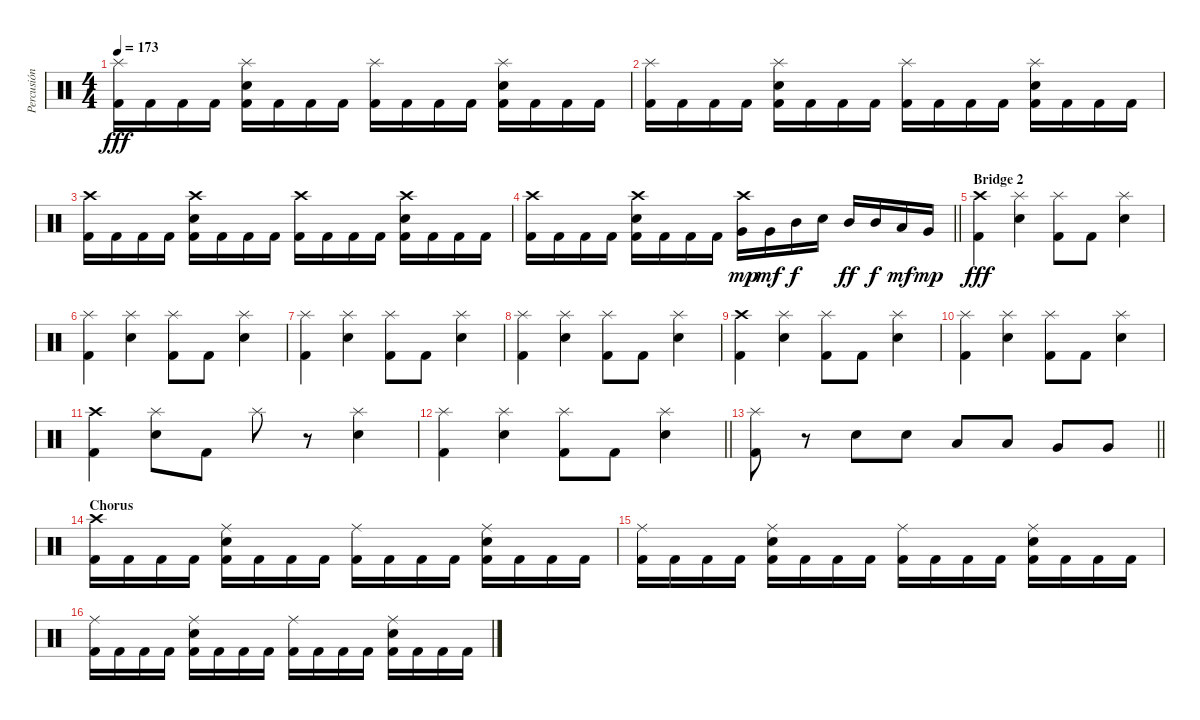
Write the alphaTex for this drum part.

\track ("Percusión" "Percusión") {instrument percussion}
\staff {score}
\articulation defaults
\ts (4 4)
\tempo 173
\clef neutral
\ks c
("Splash (hit)" "Kick (hit) 2").16{dy fff} "Kick (hit) 2".16 "Kick (hit) 2".16 "Kick (hit) 2".16 ("Splash (hit)" "Electric Snare (hit)" "Kick (hit) 2").16 "Kick (hit) 2".16 "Kick (hit) 2".16 "Kick (hit) 2".16 ("Splash (hit)" "Kick (hit) 2").16 "Kick (hit) 2".16 "Kick (hit) 2".16 "Kick (hit) 2".16 ("Splash (hit)" "Electric Snare (hit)" "Kick (hit) 2").16 "Kick (hit) 2".16 "Kick (hit) 2".16 "Kick (hit) 2".16 |
("Splash (hit)" "Kick (hit) 2").16 "Kick (hit) 2".16 "Kick (hit) 2".16 "Kick (hit) 2".16 ("Splash (hit)" "Electric Snare (hit)" "Kick (hit) 2").16 "Kick (hit) 2".16 "Kick (hit) 2".16 "Kick (hit) 2".16 ("Splash (hit)" "Kick (hit) 2").16 "Kick (hit) 2".16 "Kick (hit) 2".16 "Kick (hit) 2".16 ("Splash (hit)" "Electric Snare (hit)" "Kick (hit) 2").16 "Kick (hit) 2".16 "Kick (hit) 2".16 "Kick (hit) 2".16 |
("Crash high (hit)" "Kick (hit) 2").16 "Kick (hit) 2".16 "Kick (hit) 2".16 "Kick (hit) 2".16 ("Crash high (hit)" "Electric Snare (hit)" "Kick (hit) 2").16 "Kick (hit) 2".16 "Kick (hit) 2".16 "Kick (hit) 2".16 ("Crash high (hit)" "Kick (hit) 2").16 "Kick (hit) 2".16 "Kick (hit) 2".16 "Kick (hit) 2".16 ("Crash high (hit)" "Electric Snare (hit)" "Kick (hit) 2").16 "Kick (hit) 2".16 "Kick (hit) 2".16 "Kick (hit) 2".16 |
\barLineRight lightlight
("Crash high (hit)" "Kick (hit) 2").16 "Kick (hit) 2".16 "Kick (hit) 2".16 "Kick (hit) 2".16 ("Crash high (hit)" "Electric Snare (hit)" "Kick (hit) 2").16 "Kick (hit) 2".16 "Kick (hit) 2".16 "Kick (hit) 2".16 ("Crash high (hit)" "Very Low Tom (hit)").16{dy mp} "Very Low Tom (hit)".16{dy mf} "Mid Tom (hit)".16{dy f} "Electric Snare (hit)".16 "Mid Tom (hit)".16{dy ff} "Mid Tom (hit)".16{dy f} "Low Tom (hit)".16{dy mf} "Very Low Tom (hit)".16{dy mp} |
\section ("" "Bridge 2")
("Crash high (hit)" "Kick (hit) 2").4{dy fff} ("Splash (hit)" "Electric Snare (hit)").4 ("Splash (hit)" "Kick (hit) 2").8 "Kick (hit) 2".8 ("Splash (hit)" "Electric Snare (hit)").4 |
("Splash (hit)" "Kick (hit) 2").4 ("Splash (hit)" "Electric Snare (hit)").4 ("Splash (hit)" "Kick (hit) 2").8 "Kick (hit) 2".8 ("Splash (hit)" "Electric Snare (hit)").4 |
("Splash (hit)" "Kick (hit) 2").4 ("Splash (hit)" "Electric Snare (hit)").4 ("Splash (hit)" "Kick (hit) 2").8 "Kick (hit) 2".8 ("Splash (hit)" "Electric Snare (hit)").4 |
("Splash (hit)" "Kick (hit) 2").4 ("Splash (hit)" "Electric Snare (hit)").4 ("Splash (hit)" "Kick (hit) 2").8 "Kick (hit) 2".8 ("Splash (hit)" "Electric Snare (hit)").4 |
("Crash high (hit)" "Kick (hit) 2").4 ("Splash (hit)" "Electric Snare (hit)").4 ("Splash (hit)" "Kick (hit) 2").8 "Kick (hit) 2".8 ("Splash (hit)" "Electric Snare (hit)").4 |
("Splash (hit)" "Kick (hit) 2").4 ("Splash (hit)" "Electric Snare (hit)").4 ("Splash (hit)" "Kick (hit) 2").8 "Kick (hit) 2".8 ("Splash (hit)" "Electric Snare (hit)").4 |
("Crash high (hit)" "Kick (hit) 2").4 ("Splash (hit)" "Electric Snare (hit)").8 "Kick (hit) 2".8 "Splash (hit)".8 r.8 ("Splash (hit)" "Electric Snare (hit)").4 |
\barLineRight lightlight
("Splash (hit)" "Kick (hit) 2").4 ("Splash (hit)" "Electric Snare (hit)").4 ("Splash (hit)" "Kick (hit) 2").8 "Kick (hit) 2".8 ("Splash (hit)" "Electric Snare (hit)").4 |
\section ("" "")
\barLineRight lightlight
("Splash (hit)" "Kick (hit) 2").8 r.8 "Electric Snare (hit)".8 "Electric Snare (hit)".8 "Low Tom (hit)".8 "Low Tom (hit)".8 "Very Low Tom (hit)".8 "Very Low Tom (hit)".8 |
\section ("" "Chorus")
("Crash high (hit)" "Kick (hit) 2").16 "Kick (hit) 2".16 "Kick (hit) 2".16 "Kick (hit) 2".16 ("Ride (middle)" "Electric Snare (hit)" "Kick (hit) 2").16 "Kick (hit) 2".16 "Kick (hit) 2".16 "Kick (hit) 2".16 ("Ride (middle)" "Kick (hit) 2").16 "Kick (hit) 2".16 "Kick (hit) 2".16 "Kick (hit) 2".16 ("Ride (middle)" "Electric Snare (hit)" "Kick (hit) 2").16 "Kick (hit) 2".16 "Kick (hit) 2".16 "Kick (hit) 2".16 |
("Ride (middle)" "Kick (hit) 2").16 "Kick (hit) 2".16 "Kick (hit) 2".16 "Kick (hit) 2".16 ("Ride (middle)" "Electric Snare (hit)" "Kick (hit) 2").16 "Kick (hit) 2".16 "Kick (hit) 2".16 "Kick (hit) 2".16 ("Ride (middle)" "Kick (hit) 2").16 "Kick (hit) 2".16 "Kick (hit) 2".16 "Kick (hit) 2".16 ("Ride (middle)" "Electric Snare (hit)" "Kick (hit) 2").16 "Kick (hit) 2".16 "Kick (hit) 2".16 "Kick (hit) 2".16 |
("Ride (middle)" "Kick (hit) 2").16 "Kick (hit) 2".16 "Kick (hit) 2".16 "Kick (hit) 2".16 ("Ride (middle)" "Electric Snare (hit)" "Kick (hit) 2").16 "Kick (hit) 2".16 "Kick (hit) 2".16 "Kick (hit) 2".16 ("Ride (middle)" "Kick (hit) 2").16 "Kick (hit) 2".16 "Kick (hit) 2".16 "Kick (hit) 2".16 ("Ride (middle)" "Electric Snare (hit)" "Kick (hit) 2").16 "Kick (hit) 2".16 "Kick (hit) 2".16 "Kick (hit) 2".16
